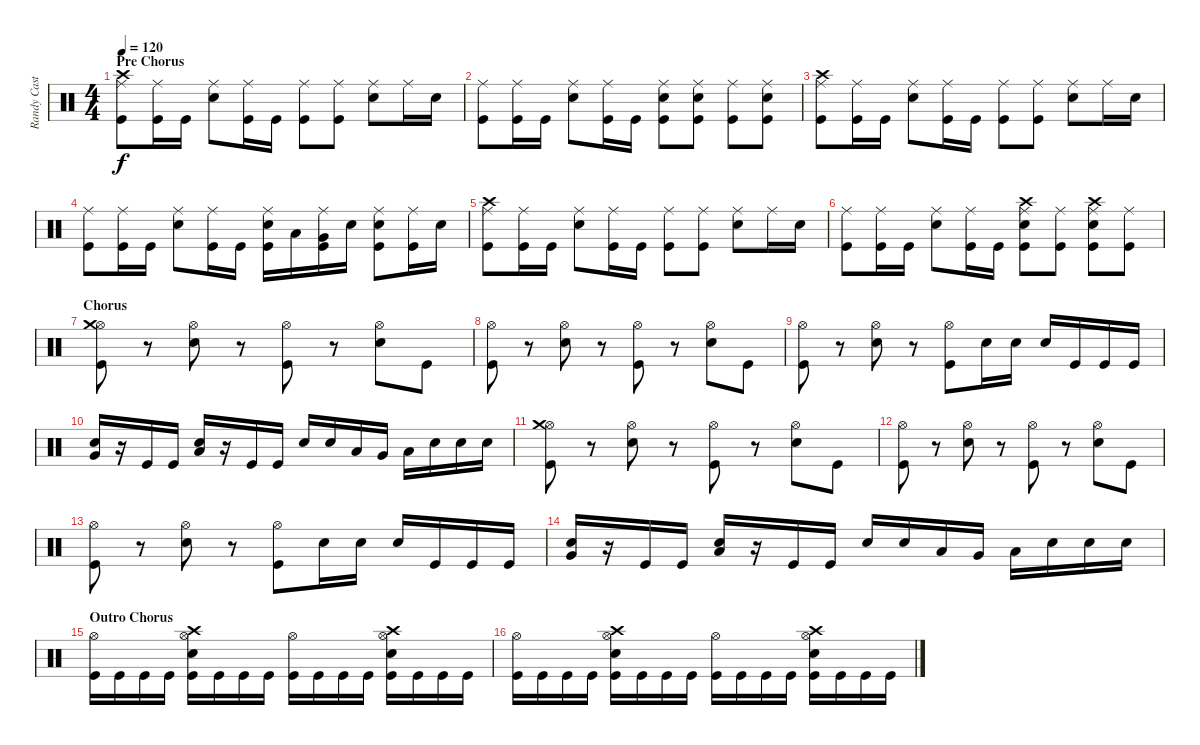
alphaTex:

\track ("Randy Castiello (Dums)" "Randy Cast") {instrument percussion}
\staff {score}
\articulation defaults
\ts (4 4)
\section ("" "Pre Chorus")
\tempo 120
\clef neutral
\ks c
("Ride (middle)" "Crash high (hit)" "Kick (hit)").8{dy f} ("Ride (middle)" "Kick (hit)").16 "Kick (hit)".16 ("Ride (middle)" "Snare (hit) 2").8 ("Ride (middle)" "Kick (hit)").16 "Kick (hit)".16 ("Ride (middle)" "Kick (hit)").8 ("Ride (middle)" "Kick (hit)").8 ("Ride (middle)" "Snare (hit) 2").8 "Ride (middle)".16 "Snare (hit) 2".16 |
("Ride (middle)" "Kick (hit)").8 ("Ride (middle)" "Kick (hit)").16 "Kick (hit)".16 ("Ride (middle)" "Snare (hit) 2").8 ("Ride (middle)" "Kick (hit)").16 "Kick (hit)".16 ("Ride (middle)" "Snare (hit) 2" "Kick (hit)").8 ("Ride (middle)" "Snare (hit) 2" "Kick (hit)").8 ("Ride (middle)" "Kick (hit)").8 ("Ride (middle)" "Snare (hit) 2" "Kick (hit)").8 |
("Ride (middle)" "Crash high (hit)" "Kick (hit)").8 ("Ride (middle)" "Kick (hit)").16 "Kick (hit)".16 ("Ride (middle)" "Snare (hit) 2").8 ("Ride (middle)" "Kick (hit)").16 "Kick (hit)".16 ("Ride (middle)" "Kick (hit)").8 ("Ride (middle)" "Kick (hit)").8 ("Ride (middle)" "Snare (hit) 2").8 "Ride (middle)".16 "Snare (hit) 2".16 |
("Ride (middle)" "Kick (hit)").8 ("Ride (middle)" "Kick (hit)").16 "Kick (hit)".16 ("Ride (middle)" "Snare (hit) 2").8 ("Ride (middle)" "Kick (hit)").16 "Kick (hit)".16 ("Ride (middle)" "Snare (hit) 2" "Kick (hit)").16 "Low Tom (hit)".16 ("Ride (middle)" "Very Low Tom (hit)" "Kick (hit)").16 "Snare (hit) 2".16 ("Ride (middle)" "Snare (hit) 2" "Kick (hit)").8 ("Ride (middle)" "Kick (hit)").16 "Snare (hit) 2".16 |
("Ride (middle)" "Crash high (hit)" "Kick (hit)").8 ("Ride (middle)" "Kick (hit)").16 "Kick (hit)".16 ("Ride (middle)" "Snare (hit) 2").8 ("Ride (middle)" "Kick (hit)").16 "Kick (hit)".16 ("Ride (middle)" "Kick (hit)").8 ("Ride (middle)" "Kick (hit)").8 ("Ride (middle)" "Snare (hit) 2").8 "Ride (middle)".16 "Snare (hit) 2".16 |
("Ride (middle)" "Kick (hit)").8 ("Ride (middle)" "Kick (hit)").16 "Kick (hit)".16 ("Ride (middle)" "Snare (hit) 2").8 ("Ride (middle)" "Kick (hit)").16 "Kick (hit)".16 ("Ride (middle)" "Crash high (hit)" "Snare (hit) 2" "Kick (hit)").8 ("Ride (middle)" "Kick (hit)").8 ("Ride (middle)" "Crash high (hit)" "Snare (hit) 2" "Kick (hit)").8 ("Ride (middle)" "Kick (hit)").8 |
\section ("" "Chorus")
("Hi-Hat (open)" "Crash medium (hit)" "Kick (hit)").8 r.8 ("Hi-Hat (open)" "Snare (hit) 2").8 r.8 ("Hi-Hat (open)" "Kick (hit)").8 r.8 ("Hi-Hat (open)" "Snare (hit) 2").8 "Kick (hit)".8 |
("Hi-Hat (open)" "Kick (hit)").8 r.8 ("Hi-Hat (open)" "Snare (hit) 2").8 r.8 ("Hi-Hat (open)" "Kick (hit)").8 r.8 ("Hi-Hat (open)" "Snare (hit) 2").8 "Kick (hit)".8 |
("Hi-Hat (open)" "Kick (hit)").8 r.8 ("Hi-Hat (open)" "Snare (hit) 2").8 r.8 ("Hi-Hat (open)" "Kick (hit)").8 "Snare (hit) 2".16 "Snare (hit) 2".16 "Snare (hit) 2".16 "Kick (hit)".16 "Kick (hit)".16 "Kick (hit)".16 |
("Very Low Tom (hit)" "Snare (hit) 2").16 r.16 "Kick (hit)".16 "Kick (hit)".16 ("Low Floor Tom (hit)" "Snare (hit) 2").16 r.16 "Kick (hit)".16 "Kick (hit)".16 "Snare (hit) 2".16 "Snare (hit) 2".16 "Low Tom (hit)".16 "Very Low Tom (hit)".16 "Low Floor Tom (hit)".16 "Snare (hit) 2".16 "Snare (hit) 2".16 "Snare (hit) 2".16 |
("Hi-Hat (open)" "Crash medium (hit)" "Kick (hit)").8 r.8 ("Hi-Hat (open)" "Snare (hit) 2").8 r.8 ("Hi-Hat (open)" "Kick (hit)").8 r.8 ("Hi-Hat (open)" "Snare (hit) 2").8 "Kick (hit)".8 |
("Hi-Hat (open)" "Kick (hit)").8 r.8 ("Hi-Hat (open)" "Snare (hit) 2").8 r.8 ("Hi-Hat (open)" "Kick (hit)").8 r.8 ("Hi-Hat (open)" "Snare (hit) 2").8 "Kick (hit)".8 |
("Hi-Hat (open)" "Kick (hit)").8 r.8 ("Hi-Hat (open)" "Snare (hit) 2").8 r.8 ("Hi-Hat (open)" "Kick (hit)").8 "Snare (hit) 2".16 "Snare (hit) 2".16 "Snare (hit) 2".16 "Kick (hit)".16 "Kick (hit)".16 "Kick (hit)".16 |
("Very Low Tom (hit)" "Snare (hit) 2").16 r.16 "Kick (hit)".16 "Kick (hit)".16 ("Low Floor Tom (hit)" "Snare (hit) 2").16 r.16 "Kick (hit)".16 "Kick (hit)".16 "Snare (hit) 2".16 "Snare (hit) 2".16 "Low Tom (hit)".16 "Very Low Tom (hit)".16 "Low Floor Tom (hit)".16 "Snare (hit) 2".16 "Snare (hit) 2".16 "Snare (hit) 2".16 |
\section ("" "Outro Chorus")
("Hi-Hat (open)" "Kick (hit)").16 "Kick (hit)".16 "Kick (hit)".16 "Kick (hit)".16 ("Hi-Hat (open)" "Crash high (hit)" "Snare (hit) 2" "Kick (hit)").16 "Kick (hit)".16 "Kick (hit)".16 "Kick (hit)".16 ("Hi-Hat (open)" "Kick (hit)").16 "Kick (hit)".16 "Kick (hit)".16 "Kick (hit)".16 ("Hi-Hat (open)" "Crash high (hit)" "Snare (hit) 2" "Kick (hit)").16 "Kick (hit)".16 "Kick (hit)".16 "Kick (hit)".16 |
("Hi-Hat (open)" "Kick (hit)").16 "Kick (hit)".16 "Kick (hit)".16 "Kick (hit)".16 ("Hi-Hat (open)" "Crash high (hit)" "Snare (hit) 2" "Kick (hit)").16 "Kick (hit)".16 "Kick (hit)".16 "Kick (hit)".16 ("Hi-Hat (open)" "Kick (hit)").16 "Kick (hit)".16 "Kick (hit)".16 "Kick (hit)".16 ("Hi-Hat (open)" "Crash high (hit)" "Snare (hit) 2" "Kick (hit)").16 "Kick (hit)".16 "Kick (hit)".16 "Kick (hit)".16
